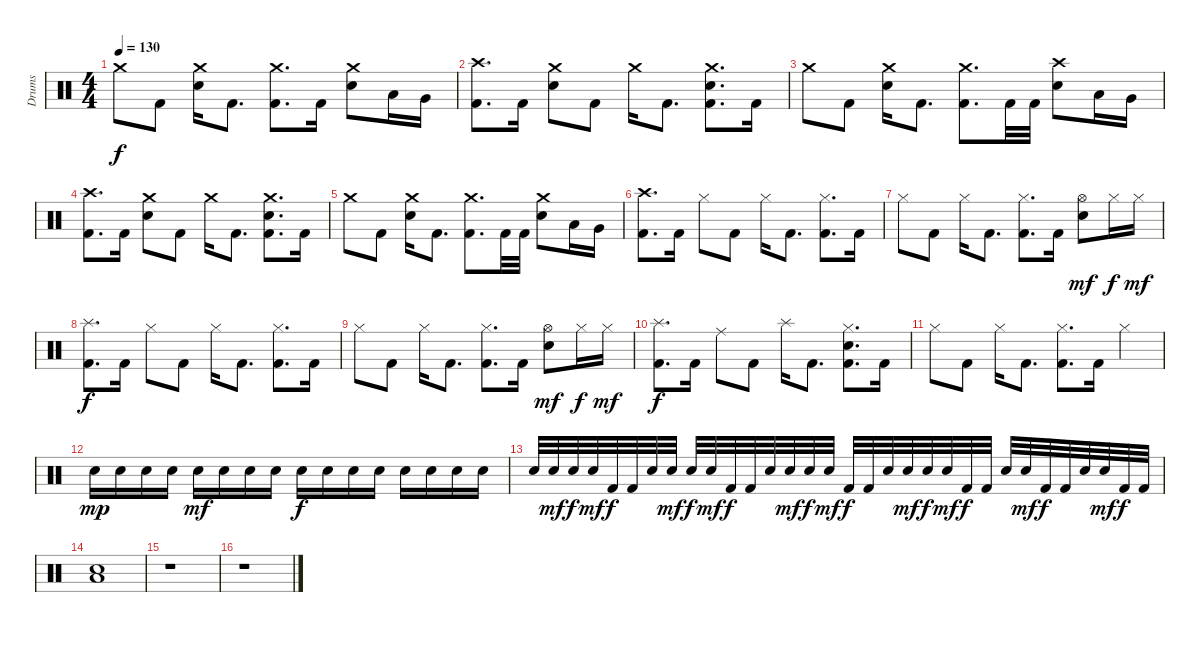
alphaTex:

\track ("Drums" "Drums") {instrument percussion}
\staff {score}
\articulation defaults
\ts (4 4)
\tempo 130
\clef neutral
\ks c "Crash medium (hit)".8{dy f} "Kick (hit) 2".8
("Crash medium (hit)" "Electric Snare (hit)").16 "Kick (hit) 2".8{d} ("Kick (hit) 2" "Crash medium (hit)").8{d} "Kick (hit) 2".16 ("Crash medium (hit)" "Electric Snare (hit)").8 "Low Tom (hit)".16 "Very Low Tom (hit)".16 |
("Kick (hit) 2" "Crash high (hit)").8{d} "Kick (hit) 2".16 ("Crash medium (hit)" "Electric Snare (hit)").8 "Kick (hit) 2".8 "Crash medium (hit)".16 "Kick (hit) 2".8{d} ("Kick (hit) 2" "Crash medium (hit)" "Electric Snare (hit)").8{d} "Kick (hit) 2".16 |
"Crash medium (hit)".8 "Kick (hit) 2".8 ("Crash medium (hit)" "Electric Snare (hit)").16 "Kick (hit) 2".8{d} ("Kick (hit) 2" "Crash medium (hit)").8{d} "Kick (hit) 2".32 "Kick (hit) 2".32 ("Crash high (hit)" "Electric Snare (hit)").8 "Low Tom (hit)".16 "Very Low Tom (hit)".16 |
("Kick (hit) 2" "Crash high (hit)").8{d} "Kick (hit) 2".16 ("Crash medium (hit)" "Electric Snare (hit)").8 "Kick (hit) 2".8 "Crash medium (hit)".16 "Kick (hit) 2".8{d} ("Kick (hit) 2" "Crash medium (hit)" "Electric Snare (hit)").8{d} "Kick (hit) 2".16 |
"Crash medium (hit)".8 "Kick (hit) 2".8 ("Crash medium (hit)" "Electric Snare (hit)").16 "Kick (hit) 2".8{d} ("Kick (hit) 2" "Crash medium (hit)").8{d} "Kick (hit) 2".32 "Kick (hit) 2".32 ("Crash medium (hit)" "Electric Snare (hit)").8 "Low Tom (hit)".16 "Very Low Tom (hit)".16 |
("Kick (hit) 2" "Crash high (hit)").8{d} "Kick (hit) 2".16 "Hi-Hat (closed)".8 "Kick (hit) 2".8 "Hi-Hat (closed)".16 "Kick (hit) 2".8{d} ("Kick (hit) 2" "Hi-Hat (closed)").8{d} "Kick (hit) 2".16 |
"Hi-Hat (closed)".8 "Kick (hit) 2".8 "Hi-Hat (closed)".16 "Kick (hit) 2".8{d} ("Kick (hit) 2" "Hi-Hat (closed)").8{d} "Kick (hit) 2".16 ("Hi-Hat (open)" "Electric Snare (hit)").8{dy mf} "Hi-Hat (closed)".16{dy f} "Hi-Hat (closed)".16{dy mf} |
("Kick (hit) 2" "Splash (hit)").8{d dy f} "Kick (hit) 2".16 "Hi-Hat (closed)".8 "Kick (hit) 2".8 "Hi-Hat (closed)".16 "Kick (hit) 2".8{d} ("Kick (hit) 2" "Hi-Hat (closed)").8{d} "Kick (hit) 2".16 |
"Hi-Hat (closed)".8 "Kick (hit) 2".8 "Hi-Hat (closed)".16 "Kick (hit) 2".8{d} ("Kick (hit) 2" "Hi-Hat (closed)").8{d} "Kick (hit) 2".16 ("Hi-Hat (open)" "Electric Snare (hit)").8{dy mf} "Hi-Hat (closed)".16{dy f} "Hi-Hat (closed)".16{dy mf} |
("Kick (hit) 2" "Splash (hit)").8{d dy f} "Kick (hit) 2".16 "Ride (middle)".8 "Kick (hit) 2".8 "Splash (hit)".16 "Kick (hit) 2".8{d} ("Kick (hit) 2" "Hi-Hat (closed)" "Electric Snare (hit)").8{d} "Kick (hit) 2".16 |
"Hi-Hat (closed)".8 "Kick (hit) 2".8 "Hi-Hat (closed)".16 "Kick (hit) 2".8{d} ("Kick (hit) 2" "Hi-Hat (closed)").8{d} "Kick (hit) 2".16 "Hi-Hat (closed)".4 |
"Electric Snare (hit)".16{dy mp} "Electric Snare (hit)".16 "Electric Snare (hit)".16 "Electric Snare (hit)".16 "Electric Snare (hit)".16{dy mf} "Electric Snare (hit)".16 "Electric Snare (hit)".16 "Electric Snare (hit)".16 "Electric Snare (hit)".16{dy f} "Electric Snare (hit)".16 "Electric Snare (hit)".16 "Electric Snare (hit)".16 "Electric Snare (hit)".16 "Electric Snare (hit)".16 "Electric Snare (hit)".16 "Electric Snare (hit)".16 |
"Electric Snare (hit)".32 "Electric Snare (hit)".32{dy mf} "Electric Snare (hit)".32{dy f} "Electric Snare (hit)".32{dy mf} "Kick (hit) 2".32{dy f} "Kick (hit) 2".32 "Electric Snare (hit)".32 "Electric Snare (hit)".32{dy mf} "Electric Snare (hit)".32{dy f} "Electric Snare (hit)".32{dy mf} "Kick (hit) 2".32{dy f} "Kick (hit) 2".32 "Electric Snare (hit)".32 "Electric Snare (hit)".32{dy mf} "Electric Snare (hit)".32{dy f} "Electric Snare (hit)".32{dy mf} "Kick (hit) 2".32{dy f} "Kick (hit) 2".32 "Electric Snare (hit)".32 "Electric Snare (hit)".32{dy mf} "Electric Snare (hit)".32{dy f} "Electric Snare (hit)".32{dy mf} "Kick (hit) 2".32{dy f} "Kick (hit) 2".32 "Electric Snare (hit)".32 "Electric Snare (hit)".32{dy mf} "Kick (hit) 2".32{dy f} "Kick (hit) 2".32 "Electric Snare (hit)".32 "Electric Snare (hit)".32{dy mf} "Kick (hit) 2".32{dy f} "Kick (hit) 2".32 |
("Low Floor Tom (hit)" "Electric Snare (hit)").1 |
r.1 |
r.1
